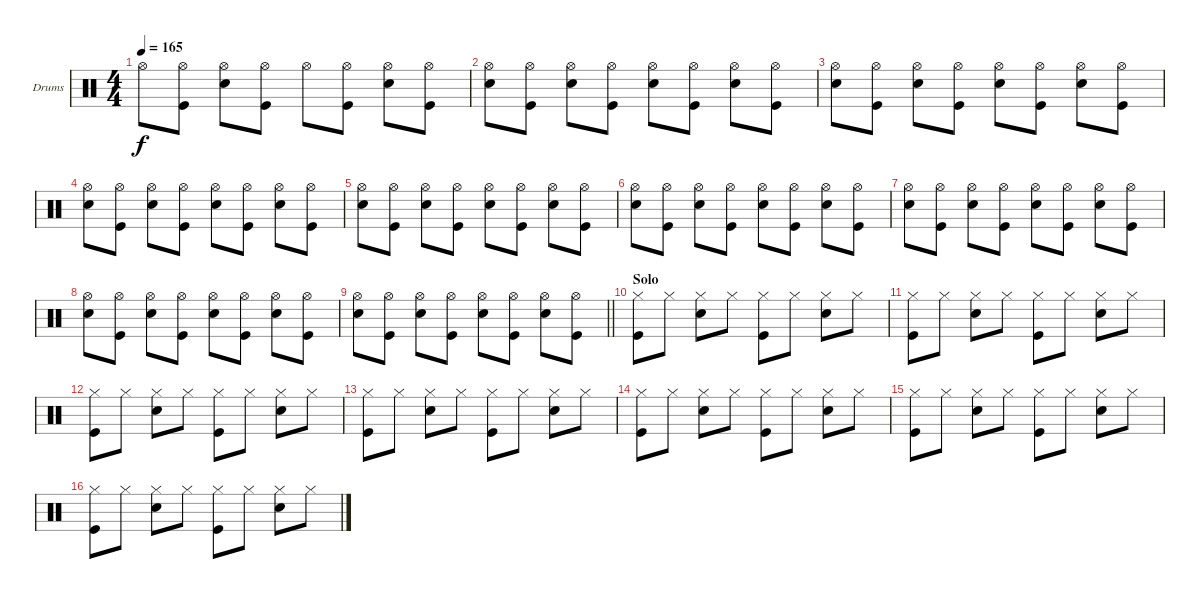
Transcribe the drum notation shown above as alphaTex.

\bracketExtendMode groupsimilarinstruments
\firstSystemTrackNameOrientation horizontal
\otherSystemsTrackNameOrientation horizontal
\track ("Fabrizio" "Drums") {instrument percussion}
\staff {score}
\articulation defaults
\ts (4 4)
\tempo 165
\clef neutral
\ks c "Hi-Hat (open)".8{dy f}
("Hi-Hat (open)" "Kick (hit)").8 ("Hi-Hat (open)" "Snare (hit) 2").8 ("Hi-Hat (open)" "Kick (hit)").8 "Hi-Hat (open)".8 ("Hi-Hat (open)" "Kick (hit)").8 ("Hi-Hat (open)" "Snare (hit) 2").8 ("Hi-Hat (open)" "Kick (hit)").8 |
("Snare (hit) 2" "Hi-Hat (open)").8 ("Kick (hit)" "Hi-Hat (open)").8 ("Snare (hit) 2" "Hi-Hat (open)").8 ("Kick (hit)" "Hi-Hat (open)").8 ("Hi-Hat (open)" "Snare (hit) 2").8 ("Hi-Hat (open)" "Kick (hit)").8 ("Hi-Hat (open)" "Snare (hit) 2").8 ("Hi-Hat (open)" "Kick (hit)").8 |
("Hi-Hat (open)" "Snare (hit) 2").8 ("Hi-Hat (open)" "Kick (hit)").8 ("Hi-Hat (open)" "Snare (hit) 2").8 ("Hi-Hat (open)" "Kick (hit)").8 ("Hi-Hat (open)" "Snare (hit) 2").8 ("Hi-Hat (open)" "Kick (hit)").8 ("Hi-Hat (open)" "Snare (hit) 2").8 ("Hi-Hat (open)" "Kick (hit)").8 |
("Hi-Hat (open)" "Snare (hit) 2").8 ("Hi-Hat (open)" "Kick (hit)").8 ("Hi-Hat (open)" "Snare (hit) 2").8 ("Hi-Hat (open)" "Kick (hit)").8 ("Hi-Hat (open)" "Snare (hit) 2").8 ("Hi-Hat (open)" "Kick (hit)").8 ("Hi-Hat (open)" "Snare (hit) 2").8 ("Hi-Hat (open)" "Kick (hit)").8 |
("Hi-Hat (open)" "Snare (hit) 2").8 ("Hi-Hat (open)" "Kick (hit)").8 ("Hi-Hat (open)" "Snare (hit) 2").8 ("Hi-Hat (open)" "Kick (hit)").8 ("Hi-Hat (open)" "Snare (hit) 2").8 ("Hi-Hat (open)" "Kick (hit)").8 ("Hi-Hat (open)" "Snare (hit) 2").8 ("Hi-Hat (open)" "Kick (hit)").8 |
("Hi-Hat (open)" "Snare (hit) 2").8 ("Hi-Hat (open)" "Kick (hit)").8 ("Hi-Hat (open)" "Snare (hit) 2").8 ("Hi-Hat (open)" "Kick (hit)").8 ("Hi-Hat (open)" "Snare (hit) 2").8 ("Hi-Hat (open)" "Kick (hit)").8 ("Hi-Hat (open)" "Snare (hit) 2").8 ("Hi-Hat (open)" "Kick (hit)").8 |
("Hi-Hat (open)" "Snare (hit) 2").8 ("Hi-Hat (open)" "Kick (hit)").8 ("Hi-Hat (open)" "Snare (hit) 2").8 ("Hi-Hat (open)" "Kick (hit)").8 ("Hi-Hat (open)" "Snare (hit) 2").8 ("Hi-Hat (open)" "Kick (hit)").8 ("Hi-Hat (open)" "Snare (hit) 2").8 ("Hi-Hat (open)" "Kick (hit)").8 |
("Hi-Hat (open)" "Snare (hit) 2").8 ("Hi-Hat (open)" "Kick (hit)").8 ("Hi-Hat (open)" "Snare (hit) 2").8 ("Hi-Hat (open)" "Kick (hit)").8 ("Hi-Hat (open)" "Snare (hit) 2").8 ("Hi-Hat (open)" "Kick (hit)").8 ("Hi-Hat (open)" "Snare (hit) 2").8 ("Hi-Hat (open)" "Kick (hit)").8 |
\barLineRight lightlight
("Hi-Hat (open)" "Snare (hit) 2").8 ("Hi-Hat (open)" "Kick (hit)").8 ("Hi-Hat (open)" "Snare (hit) 2").8 ("Hi-Hat (open)" "Kick (hit)").8 ("Hi-Hat (open)" "Snare (hit) 2").8 ("Hi-Hat (open)" "Kick (hit)").8 ("Hi-Hat (open)" "Snare (hit) 2").8 ("Hi-Hat (open)" "Kick (hit)").8 |
\section ("" "Solo")
("Kick (hit)" "Hi-Hat (closed)").8 "Hi-Hat (closed)".8 ("Snare (hit) 2" "Hi-Hat (closed)").8 "Hi-Hat (closed)".8 ("Kick (hit)" "Hi-Hat (closed)").8 "Hi-Hat (closed)".8 ("Snare (hit) 2" "Hi-Hat (closed)").8 "Hi-Hat (closed)".8 |
("Hi-Hat (closed)" "Kick (hit)").8 "Hi-Hat (closed)".8 ("Hi-Hat (closed)" "Snare (hit) 2").8 "Hi-Hat (closed)".8 ("Hi-Hat (closed)" "Kick (hit)").8 "Hi-Hat (closed)".8 ("Hi-Hat (closed)" "Snare (hit) 2").8 "Hi-Hat (closed)".8 |
("Hi-Hat (closed)" "Kick (hit)").8 "Hi-Hat (closed)".8 ("Hi-Hat (closed)" "Snare (hit) 2").8 "Hi-Hat (closed)".8 ("Hi-Hat (closed)" "Kick (hit)").8 "Hi-Hat (closed)".8 ("Hi-Hat (closed)" "Snare (hit) 2").8 "Hi-Hat (closed)".8 |
("Hi-Hat (closed)" "Kick (hit)").8 "Hi-Hat (closed)".8 ("Hi-Hat (closed)" "Snare (hit) 2").8 "Hi-Hat (closed)".8 ("Hi-Hat (closed)" "Kick (hit)").8 "Hi-Hat (closed)".8 ("Hi-Hat (closed)" "Snare (hit) 2").8 "Hi-Hat (closed)".8 |
("Kick (hit)" "Hi-Hat (closed)").8 "Hi-Hat (closed)".8 ("Snare (hit) 2" "Hi-Hat (closed)").8 "Hi-Hat (closed)".8 ("Kick (hit)" "Hi-Hat (closed)").8 "Hi-Hat (closed)".8 ("Snare (hit) 2" "Hi-Hat (closed)").8 "Hi-Hat (closed)".8 |
("Kick (hit)" "Hi-Hat (closed)").8 "Hi-Hat (closed)".8 ("Snare (hit) 2" "Hi-Hat (closed)").8 "Hi-Hat (closed)".8 ("Kick (hit)" "Hi-Hat (closed)").8 "Hi-Hat (closed)".8 ("Snare (hit) 2" "Hi-Hat (closed)").8 "Hi-Hat (closed)".8 |
("Hi-Hat (closed)" "Kick (hit)").8 "Hi-Hat (closed)".8 ("Hi-Hat (closed)" "Snare (hit) 2").8 "Hi-Hat (closed)".8 ("Hi-Hat (closed)" "Kick (hit)").8 "Hi-Hat (closed)".8 ("Hi-Hat (closed)" "Snare (hit) 2").8 "Hi-Hat (closed)".8
